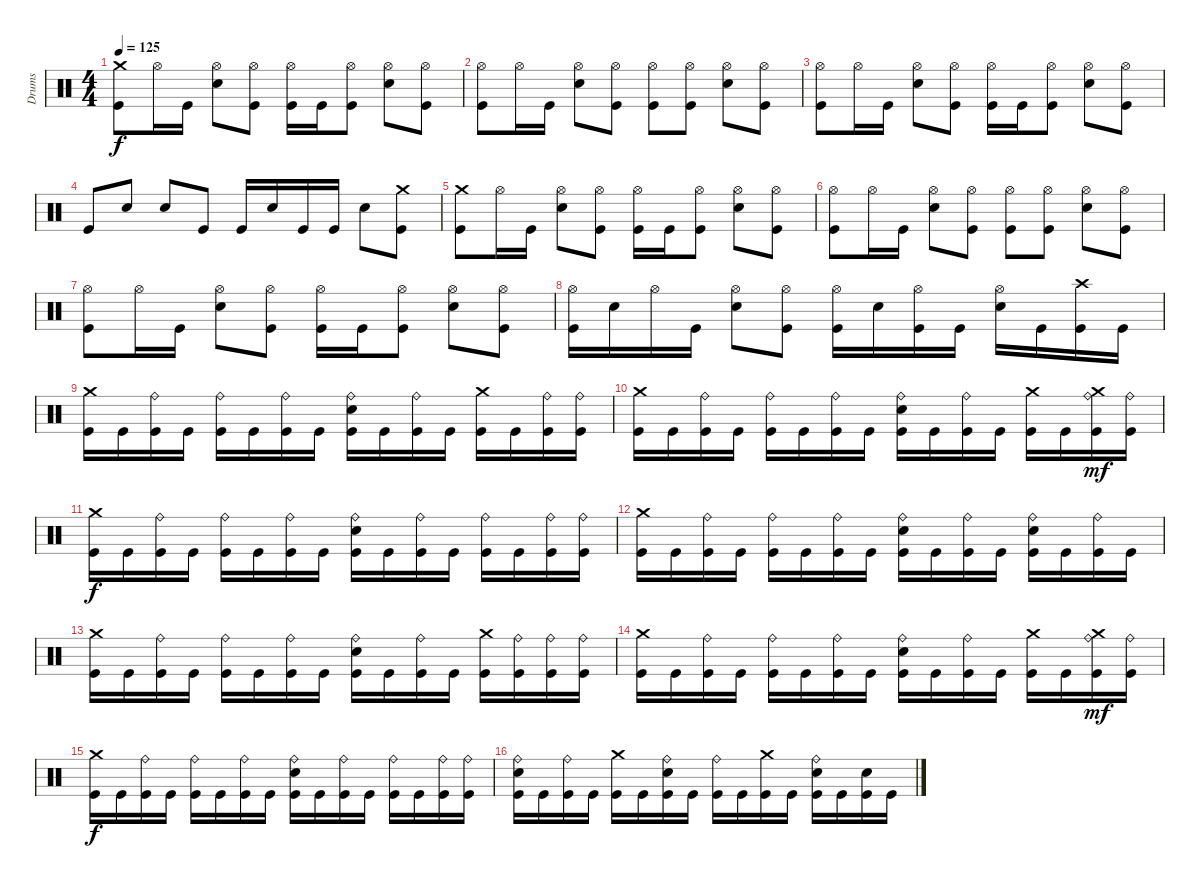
\track ("Drums" "Drums") {instrument percussion}
\staff {score}
\articulation defaults
\ts (4 4)
\tempo 125
\clef neutral
\ks c
("Kick (hit)" "Crash medium (hit)").8{dy f} "Hi-Hat (open)".16 "Kick (hit)".16 ("Electric Snare (hit)" "Hi-Hat (open)").8 ("Kick (hit)" "Hi-Hat (open)").8 ("Kick (hit)" "Hi-Hat (open)").16 "Kick (hit)".16 ("Kick (hit)" "Hi-Hat (open)").8 ("Electric Snare (hit)" "Hi-Hat (open)").8 ("Kick (hit)" "Hi-Hat (open)").8 |
("Kick (hit)" "Hi-Hat (open)").8 "Hi-Hat (open)".16 "Kick (hit)".16 ("Electric Snare (hit)" "Hi-Hat (open)").8 ("Kick (hit)" "Hi-Hat (open)").8 ("Kick (hit)" "Hi-Hat (open)").8 ("Kick (hit)" "Hi-Hat (open)").8 ("Electric Snare (hit)" "Hi-Hat (open)").8 ("Kick (hit)" "Hi-Hat (open)").8 |
("Kick (hit)" "Hi-Hat (open)").8 "Hi-Hat (open)".16 "Kick (hit)".16 ("Electric Snare (hit)" "Hi-Hat (open)").8 ("Kick (hit)" "Hi-Hat (open)").8 ("Kick (hit)" "Hi-Hat (open)").16 "Kick (hit)".16 ("Kick (hit)" "Hi-Hat (open)").8 ("Electric Snare (hit)" "Hi-Hat (open)").8 ("Kick (hit)" "Hi-Hat (open)").8 |
"Kick (hit)".8 "Electric Snare (hit)".8 "Electric Snare (hit)".8 "Kick (hit)".8 "Kick (hit)".16 "Electric Snare (hit)".16 "Kick (hit)".16 "Kick (hit)".16 "Electric Snare (hit)".8 ("Kick (hit)" "Crash medium (hit)").8 |
("Kick (hit)" "Crash medium (hit)").8 "Hi-Hat (open)".16 "Kick (hit)".16 ("Electric Snare (hit)" "Hi-Hat (open)").8 ("Kick (hit)" "Hi-Hat (open)").8 ("Kick (hit)" "Hi-Hat (open)").16 "Kick (hit)".16 ("Kick (hit)" "Hi-Hat (open)").8 ("Electric Snare (hit)" "Hi-Hat (open)").8 ("Kick (hit)" "Hi-Hat (open)").8 |
("Kick (hit)" "Hi-Hat (open)").8 "Hi-Hat (open)".16 "Kick (hit)".16 ("Electric Snare (hit)" "Hi-Hat (open)").8 ("Kick (hit)" "Hi-Hat (open)").8 ("Kick (hit)" "Hi-Hat (open)").8 ("Kick (hit)" "Hi-Hat (open)").8 ("Electric Snare (hit)" "Hi-Hat (open)").8 ("Kick (hit)" "Hi-Hat (open)").8 |
("Kick (hit)" "Hi-Hat (open)").8 "Hi-Hat (open)".16 "Kick (hit)".16 ("Electric Snare (hit)" "Hi-Hat (open)").8 ("Kick (hit)" "Hi-Hat (open)").8 ("Kick (hit)" "Hi-Hat (open)").16 "Kick (hit)".16 ("Kick (hit)" "Hi-Hat (open)").8 ("Electric Snare (hit)" "Hi-Hat (open)").8 ("Kick (hit)" "Hi-Hat (open)").8 |
("Kick (hit)" "Hi-Hat (open)").16 "Electric Snare (hit)".16 "Hi-Hat (open)".16 "Kick (hit)".16 ("Electric Snare (hit)" "Hi-Hat (open)").8 ("Kick (hit)" "Hi-Hat (open)").8 ("Kick (hit)" "Hi-Hat (open)").16 "Electric Snare (hit)".16 ("Kick (hit)" "Hi-Hat (open)").16 "Kick (hit)".16 ("Electric Snare (hit)" "Hi-Hat (open)").16 "Kick (hit)".16 ("Kick (hit)" "Crash high (hit)").16 "Kick (hit)".16 |
("Kick (hit)" "Crash medium (hit)").16 "Kick (hit)".16 ("Kick (hit)" "Ride (bell)").16 "Kick (hit)".16 ("Kick (hit)" "Ride (bell)").16 "Kick (hit)".16 ("Kick (hit)" "Ride (bell)").16 "Kick (hit)".16 ("Kick (hit)" "Electric Snare (hit)" "Ride (bell)").16 "Kick (hit)".16 ("Kick (hit)" "Ride (bell)").16 "Kick (hit)".16 ("Kick (hit)" "Crash medium (hit)").16 "Kick (hit)".16 ("Kick (hit)" "Ride (bell)").16 ("Kick (hit)" "Ride (bell)").16 |
("Kick (hit)" "Crash medium (hit)").16 "Kick (hit)".16 ("Kick (hit)" "Ride (bell)").16 "Kick (hit)".16 ("Kick (hit)" "Ride (bell)").16 "Kick (hit)".16 ("Kick (hit)" "Ride (bell)").16 "Kick (hit)".16 ("Kick (hit)" "Electric Snare (hit)" "Ride (bell)").16 "Kick (hit)".16 ("Kick (hit)" "Ride (bell)").16 "Kick (hit)".16 ("Kick (hit)" "Crash medium (hit)").16 "Kick (hit)".16 ("Kick (hit)" "Ride (bell)" "Crash medium (hit)").16{dy mf} ("Kick (hit)" "Ride (bell)").16 |
("Kick (hit)" "Crash medium (hit)").16{dy f} "Kick (hit)".16 ("Kick (hit)" "Ride (bell)").16 "Kick (hit)".16 ("Kick (hit)" "Ride (bell)").16 "Kick (hit)".16 ("Kick (hit)" "Ride (bell)").16 "Kick (hit)".16 ("Kick (hit)" "Electric Snare (hit)" "Ride (bell)").16 "Kick (hit)".16 ("Kick (hit)" "Ride (bell)").16 "Kick (hit)".16 ("Kick (hit)" "Ride (bell)").16 "Kick (hit)".16 ("Kick (hit)" "Ride (bell)").16 ("Kick (hit)" "Ride (bell)").16 |
("Kick (hit)" "Crash medium (hit)").16 "Kick (hit)".16 ("Kick (hit)" "Ride (bell)").16 "Kick (hit)".16 ("Kick (hit)" "Ride (bell)").16 "Kick (hit)".16 ("Kick (hit)" "Ride (bell)").16 "Kick (hit)".16 ("Kick (hit)" "Electric Snare (hit)" "Ride (bell)").16 "Kick (hit)".16 ("Kick (hit)" "Ride (bell)").16 "Kick (hit)".16 ("Kick (hit)" "Electric Snare (hit)" "Ride (bell)").16 "Kick (hit)".16 ("Kick (hit)" "Ride (bell)").16 "Kick (hit)".16 |
("Kick (hit)" "Crash medium (hit)").16 "Kick (hit)".16 ("Kick (hit)" "Ride (bell)").16 "Kick (hit)".16 ("Kick (hit)" "Ride (bell)").16 "Kick (hit)".16 ("Kick (hit)" "Ride (bell)").16 "Kick (hit)".16 ("Kick (hit)" "Electric Snare (hit)" "Ride (bell)").16 "Kick (hit)".16 ("Kick (hit)" "Ride (bell)").16 "Kick (hit)".16 ("Kick (hit)" "Crash medium (hit)").16 ("Kick (hit)" "Ride (bell)").16 ("Kick (hit)" "Ride (bell)").16 ("Kick (hit)" "Ride (bell)").16 |
("Kick (hit)" "Crash medium (hit)").16 "Kick (hit)".16 ("Kick (hit)" "Ride (bell)").16 "Kick (hit)".16 ("Kick (hit)" "Ride (bell)").16 "Kick (hit)".16 ("Kick (hit)" "Ride (bell)").16 "Kick (hit)".16 ("Kick (hit)" "Electric Snare (hit)" "Ride (bell)").16 "Kick (hit)".16 ("Kick (hit)" "Ride (bell)").16 "Kick (hit)".16 ("Kick (hit)" "Crash medium (hit)").16 "Kick (hit)".16 ("Kick (hit)" "Ride (bell)" "Crash medium (hit)").16{dy mf} ("Kick (hit)" "Ride (bell)").16 |
("Kick (hit)" "Crash medium (hit)").16{dy f} "Kick (hit)".16 ("Kick (hit)" "Ride (bell)").16 "Kick (hit)".16 ("Kick (hit)" "Ride (bell)").16 "Kick (hit)".16 ("Kick (hit)" "Ride (bell)").16 "Kick (hit)".16 ("Kick (hit)" "Electric Snare (hit)" "Ride (bell)").16 "Kick (hit)".16 ("Kick (hit)" "Ride (bell)").16 "Kick (hit)".16 ("Kick (hit)" "Ride (bell)").16 "Kick (hit)".16 ("Kick (hit)" "Ride (bell)").16 ("Kick (hit)" "Ride (bell)").16 |
("Kick (hit)" "Electric Snare (hit)" "Ride (bell)").16 "Kick (hit)".16 ("Kick (hit)" "Ride (bell)").16 "Kick (hit)".16 ("Kick (hit)" "Crash medium (hit)").16 "Kick (hit)".16 ("Kick (hit)" "Electric Snare (hit)" "Ride (bell)").16 "Kick (hit)".16 ("Kick (hit)" "Ride (bell)").16 "Kick (hit)".16 ("Kick (hit)" "Crash medium (hit)").16 "Kick (hit)".16 ("Kick (hit)" "Electric Snare (hit)" "Ride (bell)").16 "Kick (hit)".16 ("Kick (hit)" "Electric Snare (hit)").16 "Kick (hit)".16
